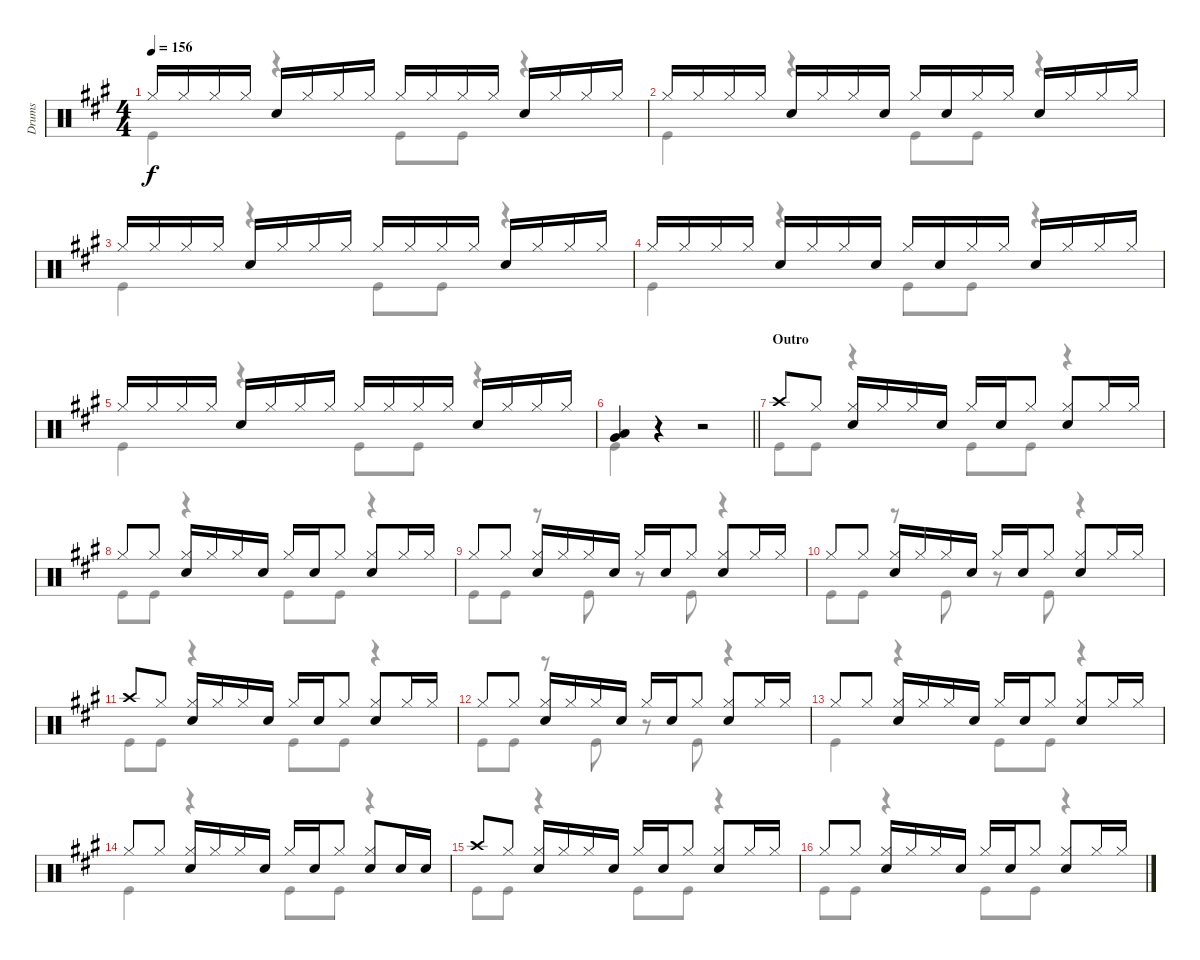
\track ("Drums" "Drums") {instrument percussion}
\staff {score}
\articulation defaults
\voice
\ts (4 4)
\tempo 156
\clef neutral
\ks a "Hi-Hat (closed)".16{dy f} "Hi-Hat (closed)".16 "Hi-Hat (closed)".16 "Hi-Hat (closed)".16 "Snare (hit) 2".16 "Hi-Hat (closed)".16 "Hi-Hat (closed)".16 "Hi-Hat (closed)".16 "Hi-Hat (closed)".16 "Hi-Hat (closed)".16 "Hi-Hat (closed)".16 "Hi-Hat (closed)".16 "Snare (hit) 2".16 "Hi-Hat (closed)".16 "Hi-Hat (closed)".16 "Hi-Hat (closed)".16
|
"Hi-Hat (closed)".16 "Hi-Hat (closed)".16 "Hi-Hat (closed)".16 "Hi-Hat (closed)".16 "Snare (hit) 2".16 "Hi-Hat (closed)".16 "Hi-Hat (closed)".16 "Snare (hit) 2".16 "Hi-Hat (closed)".16 "Snare (hit) 2".16 "Hi-Hat (closed)".16 "Hi-Hat (closed)".16 "Snare (hit) 2".16 "Hi-Hat (closed)".16 "Hi-Hat (closed)".16 "Hi-Hat (closed)".16 |
"Hi-Hat (closed)".16 "Hi-Hat (closed)".16 "Hi-Hat (closed)".16 "Hi-Hat (closed)".16 "Snare (hit) 2".16 "Hi-Hat (closed)".16 "Hi-Hat (closed)".16 "Hi-Hat (closed)".16 "Hi-Hat (closed)".16 "Hi-Hat (closed)".16 "Hi-Hat (closed)".16 "Hi-Hat (closed)".16 "Snare (hit) 2".16 "Hi-Hat (closed)".16 "Hi-Hat (closed)".16 "Hi-Hat (closed)".16 |
"Hi-Hat (closed)".16 "Hi-Hat (closed)".16 "Hi-Hat (closed)".16 "Hi-Hat (closed)".16 "Snare (hit) 2".16 "Hi-Hat (closed)".16 "Hi-Hat (closed)".16 "Snare (hit) 2".16 "Hi-Hat (closed)".16 "Snare (hit) 2".16 "Hi-Hat (closed)".16 "Hi-Hat (closed)".16 "Snare (hit) 2".16 "Hi-Hat (closed)".16 "Hi-Hat (closed)".16 "Hi-Hat (closed)".16 |
"Hi-Hat (closed)".16 "Hi-Hat (closed)".16 "Hi-Hat (closed)".16 "Hi-Hat (closed)".16 "Snare (hit) 2".16 "Hi-Hat (closed)".16 "Hi-Hat (closed)".16 "Hi-Hat (closed)".16 "Hi-Hat (closed)".16 "Hi-Hat (closed)".16 "Hi-Hat (closed)".16 "Hi-Hat (closed)".16 "Snare (hit) 2".16 "Hi-Hat (closed)".16 "Hi-Hat (closed)".16 "Hi-Hat (closed)".16 |
\barLineRight lightlight
("Low Tom (hit)" "Very Low Tom (hit)").4 r.4 r.2 |
\section ("" "Outro")
"Crash high (hit)".8 "Hi-Hat (closed)".8 ("Hi-Hat (closed)" "Snare (hit) 2").16 "Hi-Hat (closed)".16 "Hi-Hat (closed)".16 "Snare (hit) 2".16 "Hi-Hat (closed)".16 "Snare (hit) 2".16 "Hi-Hat (closed)".8 ("Hi-Hat (closed)" "Snare (hit) 2").8 "Hi-Hat (closed)".16 "Hi-Hat (closed)".16 |
"Hi-Hat (closed)".8 "Hi-Hat (closed)".8 ("Hi-Hat (closed)" "Snare (hit) 2").16 "Hi-Hat (closed)".16 "Hi-Hat (closed)".16 "Snare (hit) 2".16 "Hi-Hat (closed)".16 "Snare (hit) 2".16 "Hi-Hat (closed)".8 ("Hi-Hat (closed)" "Snare (hit) 2").8 "Hi-Hat (closed)".16 "Hi-Hat (closed)".16 |
"Hi-Hat (closed)".8 "Hi-Hat (closed)".8 ("Hi-Hat (closed)" "Snare (hit) 2").16 "Hi-Hat (closed)".16 "Hi-Hat (closed)".16 "Snare (hit) 2".16 "Hi-Hat (closed)".16 "Snare (hit) 2".16 "Hi-Hat (closed)".8 ("Hi-Hat (closed)" "Snare (hit) 2").8 "Hi-Hat (closed)".16 "Hi-Hat (closed)".16 |
"Hi-Hat (closed)".8 "Hi-Hat (closed)".8 ("Hi-Hat (closed)" "Snare (hit) 2").16 "Hi-Hat (closed)".16 "Hi-Hat (closed)".16 "Snare (hit) 2".16 "Hi-Hat (closed)".16 "Snare (hit) 2".16 "Hi-Hat (closed)".8 ("Hi-Hat (closed)" "Snare (hit) 2").8 "Hi-Hat (closed)".16 "Hi-Hat (closed)".16 |
"Crash high (hit)".8 "Hi-Hat (closed)".8 ("Hi-Hat (closed)" "Snare (hit) 2").16 "Hi-Hat (closed)".16 "Hi-Hat (closed)".16 "Snare (hit) 2".16 "Hi-Hat (closed)".16 "Snare (hit) 2".16 "Hi-Hat (closed)".8 ("Hi-Hat (closed)" "Snare (hit) 2").8 "Hi-Hat (closed)".16 "Hi-Hat (closed)".16 |
"Hi-Hat (closed)".8 "Hi-Hat (closed)".8 ("Hi-Hat (closed)" "Snare (hit) 2").16 "Hi-Hat (closed)".16 "Hi-Hat (closed)".16 "Snare (hit) 2".16 "Hi-Hat (closed)".16 "Snare (hit) 2".16 "Hi-Hat (closed)".8 ("Hi-Hat (closed)" "Snare (hit) 2").8 "Hi-Hat (closed)".16 "Hi-Hat (closed)".16 |
"Hi-Hat (closed)".8 "Hi-Hat (closed)".8 ("Hi-Hat (closed)" "Snare (hit) 2").16 "Hi-Hat (closed)".16 "Hi-Hat (closed)".16 "Snare (hit) 2".16 "Hi-Hat (closed)".16 "Snare (hit) 2".16 "Hi-Hat (closed)".8 ("Hi-Hat (closed)" "Snare (hit) 2").8 "Hi-Hat (closed)".16 "Hi-Hat (closed)".16 |
"Hi-Hat (closed)".8 "Hi-Hat (closed)".8 ("Hi-Hat (closed)" "Snare (hit) 2").16 "Hi-Hat (closed)".16 "Hi-Hat (closed)".16 "Snare (hit) 2".16 "Hi-Hat (closed)".16 "Snare (hit) 2".16 "Hi-Hat (closed)".8 ("Hi-Hat (closed)" "Snare (hit) 2").8 "Snare (hit) 2".16 "Snare (hit) 2".16 |
"Crash high (hit)".8 "Hi-Hat (closed)".8 ("Hi-Hat (closed)" "Snare (hit) 2").16 "Hi-Hat (closed)".16 "Hi-Hat (closed)".16 "Snare (hit) 2".16 "Hi-Hat (closed)".16 "Snare (hit) 2".16 "Hi-Hat (closed)".8 ("Hi-Hat (closed)" "Snare (hit) 2").8 "Hi-Hat (closed)".16 "Hi-Hat (closed)".16 |
"Hi-Hat (closed)".8 "Hi-Hat (closed)".8 ("Hi-Hat (closed)" "Snare (hit) 2").16 "Hi-Hat (closed)".16 "Hi-Hat (closed)".16 "Snare (hit) 2".16 "Hi-Hat (closed)".16 "Snare (hit) 2".16 "Hi-Hat (closed)".8 ("Hi-Hat (closed)" "Snare (hit) 2").8 "Hi-Hat (closed)".16 "Hi-Hat (closed)".16
\voice
\clef neutral
\ottava regular
\simile none
\ks a "Kick (hit)".4{dy f}
r.4 "Kick (hit)".8 "Kick (hit)".8 r.4 |
"Kick (hit)".4 r.4 "Kick (hit)".8 "Kick (hit)".8 r.4 |
"Kick (hit)".4 r.4 "Kick (hit)".8 "Kick (hit)".8 r.4 |
"Kick (hit)".4 r.4 "Kick (hit)".8 "Kick (hit)".8 r.4 |
"Kick (hit)".4 r.4 "Kick (hit)".8 "Kick (hit)".8 r.4 |
\barLineRight lightlight "Kick (hit)".4
r.4 r.2 |
"Kick (hit)".8 "Kick (hit)".8 r.4 "Kick (hit)".8 "Kick (hit)".8 r.4 |
"Kick (hit)".8 "Kick (hit)".8 r.4 "Kick (hit)".8 "Kick (hit)".8 r.4 |
"Kick (hit)".8 "Kick (hit)".8 r.8 "Kick (hit)".8 r.8 "Kick (hit)".8 r.4 |
"Kick (hit)".8 "Kick (hit)".8 r.8 "Kick (hit)".8 r.8 "Kick (hit)".8 r.4 |
"Kick (hit)".8 "Kick (hit)".8 r.4 "Kick (hit)".8 "Kick (hit)".8 r.4 |
"Kick (hit)".8 "Kick (hit)".8 r.8 "Kick (hit)".8 r.8 "Kick (hit)".8 r.4 |
"Kick (hit)".4 r.4 "Kick (hit)".8 "Kick (hit)".8 r.4 |
"Kick (hit)".4 r.4 "Kick (hit)".8 "Kick (hit)".8 r.4 |
"Kick (hit)".8 "Kick (hit)".8 r.4 "Kick (hit)".8 "Kick (hit)".8 r.4 |
"Kick (hit)".8 "Kick (hit)".8 r.4 "Kick (hit)".8 "Kick (hit)".8 r.4
